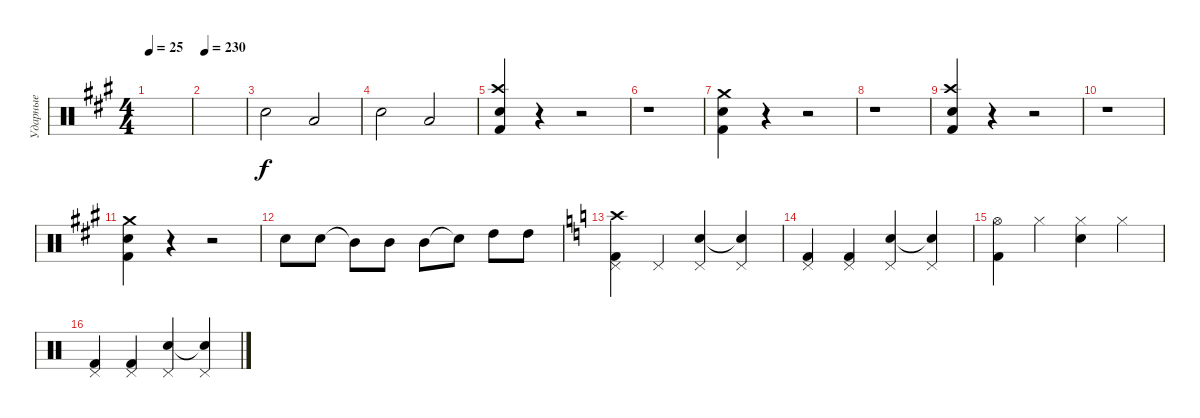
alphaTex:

\track ("Ударные" "Ударные") {instrument percussion}
\staff {score}
\articulation defaults
\ts (4 4)
\tempo 25
\clef neutral
\ks a
|
\tempo 230
|
"Electric Snare (hit)".2 "Low Tom (hit)".2 |
"Electric Snare (hit)".2 "Low Tom (hit)".2 |
("Crash high (hit)" "Electric Snare (hit)" "Kick (hit) 2").4 r.4 r.2 |
r.1 |
("Crash medium (hit)" "Kick (hit) 2" "Electric Snare (hit)").4 r.4 r.2 |
r.1 |
("Crash high (hit)" "Electric Snare (hit)" "Kick (hit) 2").4 r.4 r.2 |
r.1 |
("Crash medium (hit)" "Kick (hit) 2" "Electric Snare (hit)").4 r.4 r.2 |
"Electric Snare (hit)".8 "Electric Snare (hit)".8 "Mid Tom (hit)"{t}.8 "Mid Tom (hit)".8 "Mid Tom (hit)".8 "Snare (hit)"{t}.8 "High Tom (hit)".8 "High Tom (hit)".8 |
\ks c
("Pedal Hi-Hat (hit)" "Crash high (hit)" "Kick (hit) 2").4 "Pedal Hi-Hat (hit)".4 ("Pedal Hi-Hat (hit)" "Electric Snare (hit)").4 ("Pedal Hi-Hat (hit)" "Electric Snare (hit)"{t}).4 |
("Pedal Hi-Hat (hit)" "Kick (hit) 2").4 ("Pedal Hi-Hat (hit)" "Kick (hit) 2").4 ("Pedal Hi-Hat (hit)" "Electric Snare (hit)").4 ("Pedal Hi-Hat (hit)" "Electric Snare (hit)"{t}).4 |
("Hi-Hat (open)" "Kick (hit) 2").4 "Hi-Hat (closed)".4 ("Hi-Hat (closed)" "Electric Snare (hit)").4 "Hi-Hat (closed)".4 |
("Pedal Hi-Hat (hit)" "Kick (hit) 2").4 ("Pedal Hi-Hat (hit)" "Kick (hit) 2").4 ("Pedal Hi-Hat (hit)" "Electric Snare (hit)").4 ("Pedal Hi-Hat (hit)" "Electric Snare (hit)"{t}).4
